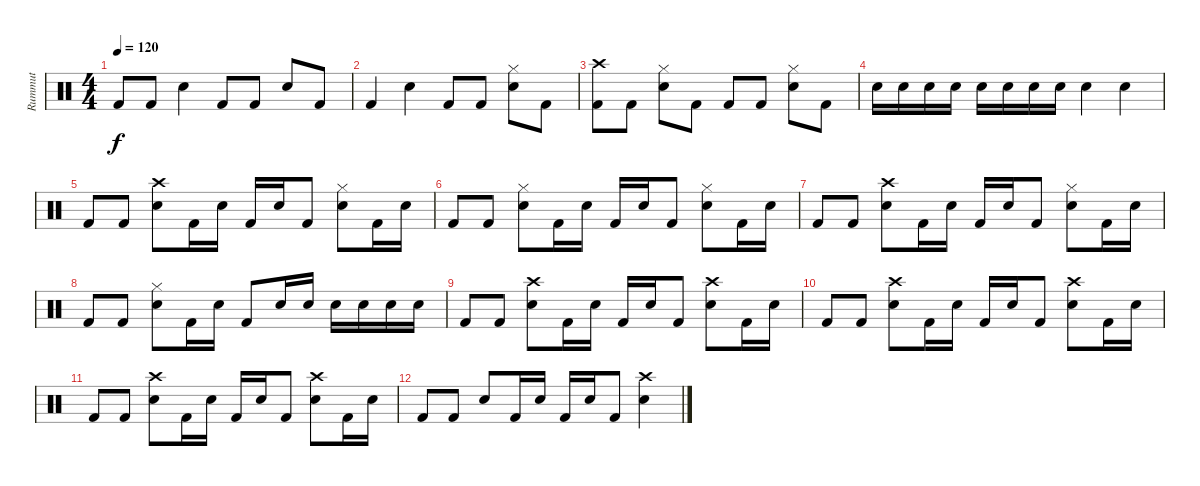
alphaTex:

\track ("Rummut" "Rummut") {instrument percussion}
\staff {score}
\articulation defaults
\ts (4 4)
\tempo 120
\clef neutral
\ks c "Kick (hit) 2".8{dy f} "Kick (hit) 2".8 "Snare (hit) 2".4 "Kick (hit) 2".8 "Kick (hit) 2".8 "Snare (hit) 2".8 "Kick (hit) 2".8
|
"Kick (hit) 2".4 "Snare (hit) 2".4 "Kick (hit) 2".8 "Kick (hit) 2".8 ("Hi-Hat (closed)" "Snare (hit) 2").8 "Kick (hit) 2".8 |
("Crash high (hit)" "Kick (hit) 2").8 "Kick (hit) 2".8 ("Hi-Hat (closed)" "Snare (hit) 2").8 "Kick (hit) 2".8 "Kick (hit) 2".8 "Kick (hit) 2".8 ("Hi-Hat (closed)" "Snare (hit) 2").8 "Kick (hit) 2".8 |
"Snare (hit) 2".16 "Snare (hit) 2".16 "Snare (hit) 2".16 "Snare (hit) 2".16 "Snare (hit) 2".16 "Snare (hit) 2".16 "Snare (hit) 2".16 "Snare (hit) 2".16 "Snare (hit) 2".4 "Snare (hit) 2".4 |
"Kick (hit) 2".8 "Kick (hit) 2".8 ("Crash high (hit)" "Snare (hit) 2").8 "Kick (hit) 2".16 "Snare (hit) 2".16 "Kick (hit) 2".16 "Snare (hit) 2".16 "Kick (hit) 2".8 ("Hi-Hat (closed)" "Snare (hit) 2").8 "Kick (hit) 2".16 "Snare (hit) 2".16 |
"Kick (hit) 2".8 "Kick (hit) 2".8 ("Hi-Hat (closed)" "Snare (hit) 2").8 "Kick (hit) 2".16 "Snare (hit) 2".16 "Kick (hit) 2".16 "Snare (hit) 2".16 "Kick (hit) 2".8 ("Hi-Hat (closed)" "Snare (hit) 2").8 "Kick (hit) 2".16 "Snare (hit) 2".16 |
"Kick (hit) 2".8 "Kick (hit) 2".8 ("Crash high (hit)" "Snare (hit) 2").8 "Kick (hit) 2".16 "Snare (hit) 2".16 "Kick (hit) 2".16 "Snare (hit) 2".16 "Kick (hit) 2".8 ("Hi-Hat (closed)" "Snare (hit) 2").8 "Kick (hit) 2".16 "Snare (hit) 2".16 |
"Kick (hit) 2".8 "Kick (hit) 2".8 ("Hi-Hat (closed)" "Snare (hit) 2").8 "Kick (hit) 2".16 "Snare (hit) 2".16 "Kick (hit) 2".8 "Snare (hit) 2".16 "Snare (hit) 2".16 "Snare (hit) 2".16 "Snare (hit) 2".16 "Snare (hit) 2".16 "Snare (hit) 2".16 |
"Kick (hit) 2".8 "Kick (hit) 2".8 ("Crash high (hit)" "Snare (hit) 2").8 "Kick (hit) 2".16 "Snare (hit) 2".16 "Kick (hit) 2".16 "Snare (hit) 2".16 "Kick (hit) 2".8 ("Crash high (hit)" "Snare (hit) 2").8 "Kick (hit) 2".16 "Snare (hit) 2".16 |
"Kick (hit) 2".8 "Kick (hit) 2".8 ("Crash high (hit)" "Snare (hit) 2").8 "Kick (hit) 2".16 "Snare (hit) 2".16 "Kick (hit) 2".16 "Snare (hit) 2".16 "Kick (hit) 2".8 ("Crash high (hit)" "Snare (hit) 2").8 "Kick (hit) 2".16 "Snare (hit) 2".16 |
"Kick (hit) 2".8 "Kick (hit) 2".8 ("Crash high (hit)" "Snare (hit) 2").8 "Kick (hit) 2".16 "Snare (hit) 2".16 "Kick (hit) 2".16 "Snare (hit) 2".16 "Kick (hit) 2".8 ("Crash high (hit)" "Snare (hit) 2").8 "Kick (hit) 2".16 "Snare (hit) 2".16 |
"Kick (hit) 2".8 "Kick (hit) 2".8 "Snare (hit) 2".8 "Kick (hit) 2".16 "Snare (hit) 2".16 "Kick (hit) 2".16 "Snare (hit) 2".16 "Kick (hit) 2".8 ("Crash high (hit)" "Snare (hit) 2").4
